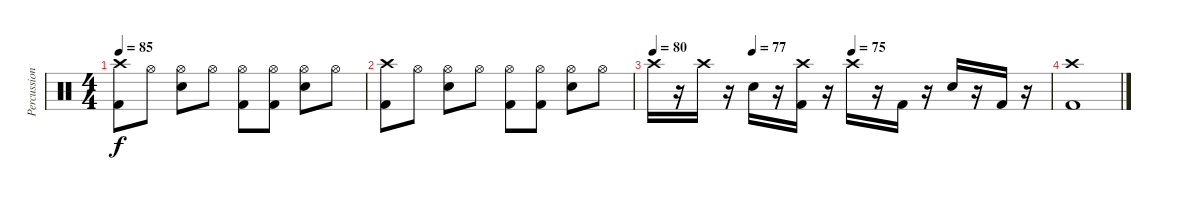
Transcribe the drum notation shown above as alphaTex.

\track ("Percussion" "Percussion") {instrument percussion}
\staff {score}
\articulation defaults
\ts (4 4)
\tempo 85
\clef neutral
\ks c
("Crash high (hit)" "Kick (hit) 2").8{dy f} "Hi-Hat (open)".8 ("Hi-Hat (open)" "Snare (hit) 2").8 "Hi-Hat (open)".8 ("Hi-Hat (open)" "Kick (hit) 2").8 ("Hi-Hat (open)" "Kick (hit) 2").8 ("Hi-Hat (open)" "Snare (hit) 2").8 "Hi-Hat (open)".8 |
("Crash high (hit)" "Kick (hit) 2").8 "Hi-Hat (open)".8 ("Hi-Hat (open)" "Snare (hit) 2").8 "Hi-Hat (open)".8 ("Hi-Hat (open)" "Kick (hit) 2").8 ("Hi-Hat (open)" "Kick (hit) 2").8 ("Hi-Hat (open)" "Snare (hit) 2").8 "Hi-Hat (open)".8 |
\tempo 80
\tempo (77 0.25)
\tempo (75 0.5)
"Crash high (hit)".16 r.16 "Crash high (hit)".16 r.16 "Snare (hit) 2".16 r.16 ("Crash high (hit)" "Kick (hit) 2").16 r.16 "Crash high (hit)".16 r.16 "Kick (hit) 2".16 r.16 "Snare (hit) 2".16 r.16 "Kick (hit) 2".16 r.16 |
("Crash high (hit)" "Kick (hit) 2").1
